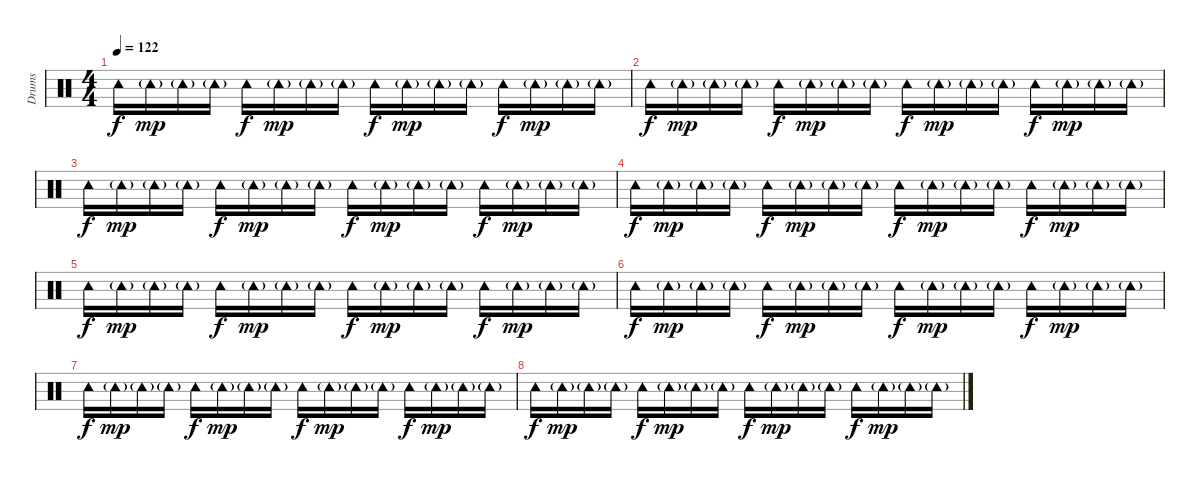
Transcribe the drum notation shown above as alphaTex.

\track ("Drums" "Drums") {instrument percussion}
\staff {score}
\articulation defaults
\ts (4 4)
\tempo 122
\clef neutral
\ks c "Tambourine (hit)".16{dy f} "Tambourine (hit)"{g}.16{dy mp} "Tambourine (hit)"{g}.16 "Tambourine (hit)"{g}.16 "Tambourine (hit)".16{dy f} "Tambourine (hit)"{g}.16{dy mp} "Tambourine (hit)"{g}.16 "Tambourine (hit)"{g}.16 "Tambourine (hit)".16{dy f} "Tambourine (hit)"{g}.16{dy mp} "Tambourine (hit)"{g}.16 "Tambourine (hit)"{g}.16 "Tambourine (hit)".16{dy f} "Tambourine (hit)"{g}.16{dy mp} "Tambourine (hit)"{g}.16 "Tambourine (hit)"{g}.16
|
"Tambourine (hit)".16{dy f} "Tambourine (hit)"{g}.16{dy mp} "Tambourine (hit)"{g}.16 "Tambourine (hit)"{g}.16 "Tambourine (hit)".16{dy f} "Tambourine (hit)"{g}.16{dy mp} "Tambourine (hit)"{g}.16 "Tambourine (hit)"{g}.16 "Tambourine (hit)".16{dy f} "Tambourine (hit)"{g}.16{dy mp} "Tambourine (hit)"{g}.16 "Tambourine (hit)"{g}.16 "Tambourine (hit)".16{dy f} "Tambourine (hit)"{g}.16{dy mp} "Tambourine (hit)"{g}.16 "Tambourine (hit)"{g}.16 |
"Tambourine (hit)".16{dy f} "Tambourine (hit)"{g}.16{dy mp} "Tambourine (hit)"{g}.16 "Tambourine (hit)"{g}.16 "Tambourine (hit)".16{dy f} "Tambourine (hit)"{g}.16{dy mp} "Tambourine (hit)"{g}.16 "Tambourine (hit)"{g}.16 "Tambourine (hit)".16{dy f} "Tambourine (hit)"{g}.16{dy mp} "Tambourine (hit)"{g}.16 "Tambourine (hit)"{g}.16 "Tambourine (hit)".16{dy f} "Tambourine (hit)"{g}.16{dy mp} "Tambourine (hit)"{g}.16 "Tambourine (hit)"{g}.16 |
"Tambourine (hit)".16{dy f} "Tambourine (hit)"{g}.16{dy mp} "Tambourine (hit)"{g}.16 "Tambourine (hit)"{g}.16 "Tambourine (hit)".16{dy f} "Tambourine (hit)"{g}.16{dy mp} "Tambourine (hit)"{g}.16 "Tambourine (hit)"{g}.16 "Tambourine (hit)".16{dy f} "Tambourine (hit)"{g}.16{dy mp} "Tambourine (hit)"{g}.16 "Tambourine (hit)"{g}.16 "Tambourine (hit)".16{dy f} "Tambourine (hit)"{g}.16{dy mp} "Tambourine (hit)"{g}.16 "Tambourine (hit)"{g}.16 |
"Tambourine (hit)".16{dy f} "Tambourine (hit)"{g}.16{dy mp} "Tambourine (hit)"{g}.16 "Tambourine (hit)"{g}.16 "Tambourine (hit)".16{dy f} "Tambourine (hit)"{g}.16{dy mp} "Tambourine (hit)"{g}.16 "Tambourine (hit)"{g}.16 "Tambourine (hit)".16{dy f} "Tambourine (hit)"{g}.16{dy mp} "Tambourine (hit)"{g}.16 "Tambourine (hit)"{g}.16 "Tambourine (hit)".16{dy f} "Tambourine (hit)"{g}.16{dy mp} "Tambourine (hit)"{g}.16 "Tambourine (hit)"{g}.16 |
"Tambourine (hit)".16{dy f} "Tambourine (hit)"{g}.16{dy mp} "Tambourine (hit)"{g}.16 "Tambourine (hit)"{g}.16 "Tambourine (hit)".16{dy f} "Tambourine (hit)"{g}.16{dy mp} "Tambourine (hit)"{g}.16 "Tambourine (hit)"{g}.16 "Tambourine (hit)".16{dy f} "Tambourine (hit)"{g}.16{dy mp} "Tambourine (hit)"{g}.16 "Tambourine (hit)"{g}.16 "Tambourine (hit)".16{dy f} "Tambourine (hit)"{g}.16{dy mp} "Tambourine (hit)"{g}.16 "Tambourine (hit)"{g}.16 |
"Tambourine (hit)".16{dy f} "Tambourine (hit)"{g}.16{dy mp} "Tambourine (hit)"{g}.16 "Tambourine (hit)"{g}.16 "Tambourine (hit)".16{dy f} "Tambourine (hit)"{g}.16{dy mp} "Tambourine (hit)"{g}.16 "Tambourine (hit)"{g}.16 "Tambourine (hit)".16{dy f} "Tambourine (hit)"{g}.16{dy mp} "Tambourine (hit)"{g}.16 "Tambourine (hit)"{g}.16 "Tambourine (hit)".16{dy f} "Tambourine (hit)"{g}.16{dy mp} "Tambourine (hit)"{g}.16 "Tambourine (hit)"{g}.16 |
"Tambourine (hit)".16{dy f} "Tambourine (hit)"{g}.16{dy mp} "Tambourine (hit)"{g}.16 "Tambourine (hit)"{g}.16 "Tambourine (hit)".16{dy f} "Tambourine (hit)"{g}.16{dy mp} "Tambourine (hit)"{g}.16 "Tambourine (hit)"{g}.16 "Tambourine (hit)".16{dy f} "Tambourine (hit)"{g}.16{dy mp} "Tambourine (hit)"{g}.16 "Tambourine (hit)"{g}.16 "Tambourine (hit)".16{dy f} "Tambourine (hit)"{g}.16{dy mp} "Tambourine (hit)"{g}.16 "Tambourine (hit)"{g}.16
